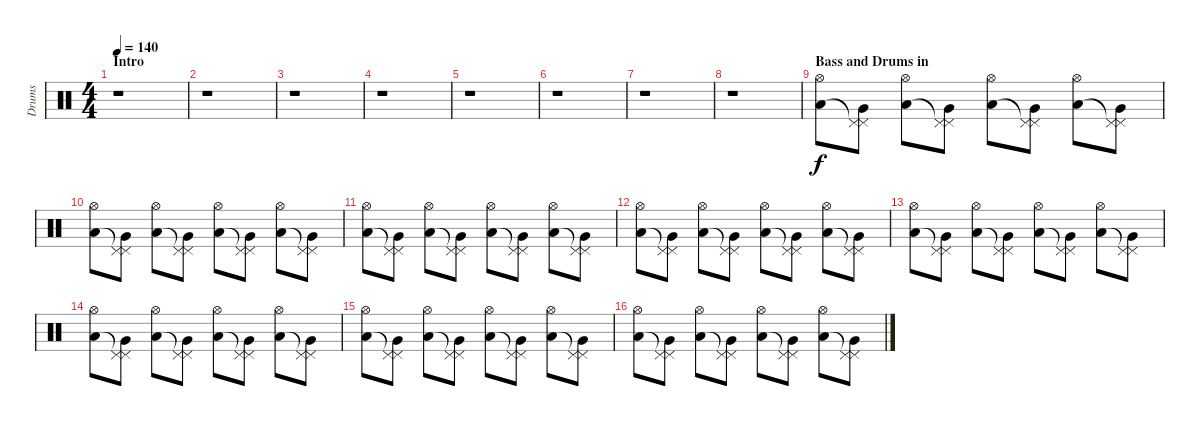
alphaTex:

\track ("Drums" "Drums") {instrument percussion}
\staff {score}
\articulation defaults
\ts (4 4)
\section ("" "Intro")
\tempo 140
\clef neutral
\ks c
r.1{dy f} |
r.1 |
r.1 |
r.1 |
r.1 |
r.1 |
r.1 |
r.1 |
\section ("" "Bass and Drums in")
("Hi-Hat (open)" "Low Floor Tom (hit)").8 ("Pedal Hi-Hat (hit)" "Pedal Hi-Hat (hit)"{t} "Very Low Tom (hit)").8 ("Hi-Hat (open)" "Low Floor Tom (hit)").8 ("Pedal Hi-Hat (hit)" "Pedal Hi-Hat (hit)"{t} "Very Low Tom (hit)").8 ("Hi-Hat (open)" "Low Floor Tom (hit)").8 ("Pedal Hi-Hat (hit)" "Pedal Hi-Hat (hit)"{t} "Very Low Tom (hit)").8 ("Hi-Hat (open)" "Low Floor Tom (hit)").8 ("Pedal Hi-Hat (hit)" "Pedal Hi-Hat (hit)"{t} "Very Low Tom (hit)").8 |
("Hi-Hat (open)" "Low Floor Tom (hit)").8 ("Pedal Hi-Hat (hit)" "Pedal Hi-Hat (hit)"{t} "Very Low Tom (hit)").8 ("Hi-Hat (open)" "Low Floor Tom (hit)").8 ("Pedal Hi-Hat (hit)" "Pedal Hi-Hat (hit)"{t} "Very Low Tom (hit)").8 ("Hi-Hat (open)" "Low Floor Tom (hit)").8 ("Pedal Hi-Hat (hit)" "Pedal Hi-Hat (hit)"{t} "Very Low Tom (hit)").8 ("Hi-Hat (open)" "Low Floor Tom (hit)").8 ("Pedal Hi-Hat (hit)" "Pedal Hi-Hat (hit)"{t} "Very Low Tom (hit)").8 |
("Hi-Hat (open)" "Low Floor Tom (hit)").8 ("Pedal Hi-Hat (hit)" "Pedal Hi-Hat (hit)"{t} "Very Low Tom (hit)").8 ("Hi-Hat (open)" "Low Floor Tom (hit)").8 ("Pedal Hi-Hat (hit)" "Pedal Hi-Hat (hit)"{t} "Very Low Tom (hit)").8 ("Hi-Hat (open)" "Low Floor Tom (hit)").8 ("Pedal Hi-Hat (hit)" "Pedal Hi-Hat (hit)"{t} "Very Low Tom (hit)").8 ("Hi-Hat (open)" "Low Floor Tom (hit)").8 ("Pedal Hi-Hat (hit)" "Pedal Hi-Hat (hit)"{t} "Very Low Tom (hit)").8 |
("Hi-Hat (open)" "Low Floor Tom (hit)").8 ("Pedal Hi-Hat (hit)" "Pedal Hi-Hat (hit)"{t} "Very Low Tom (hit)").8 ("Hi-Hat (open)" "Low Floor Tom (hit)").8 ("Pedal Hi-Hat (hit)" "Pedal Hi-Hat (hit)"{t} "Very Low Tom (hit)").8 ("Hi-Hat (open)" "Low Floor Tom (hit)").8 ("Pedal Hi-Hat (hit)" "Pedal Hi-Hat (hit)"{t} "Very Low Tom (hit)").8 ("Hi-Hat (open)" "Low Floor Tom (hit)").8 ("Pedal Hi-Hat (hit)" "Pedal Hi-Hat (hit)"{t} "Very Low Tom (hit)").8 |
("Hi-Hat (open)" "Low Floor Tom (hit)").8 ("Pedal Hi-Hat (hit)" "Pedal Hi-Hat (hit)"{t} "Very Low Tom (hit)").8 ("Hi-Hat (open)" "Low Floor Tom (hit)").8 ("Pedal Hi-Hat (hit)" "Pedal Hi-Hat (hit)"{t} "Very Low Tom (hit)").8 ("Hi-Hat (open)" "Low Floor Tom (hit)").8 ("Pedal Hi-Hat (hit)" "Pedal Hi-Hat (hit)"{t} "Very Low Tom (hit)").8 ("Hi-Hat (open)" "Low Floor Tom (hit)").8 ("Pedal Hi-Hat (hit)" "Pedal Hi-Hat (hit)"{t} "Very Low Tom (hit)").8 |
("Hi-Hat (open)" "Low Floor Tom (hit)").8 ("Pedal Hi-Hat (hit)" "Pedal Hi-Hat (hit)"{t} "Very Low Tom (hit)").8 ("Hi-Hat (open)" "Low Floor Tom (hit)").8 ("Pedal Hi-Hat (hit)" "Pedal Hi-Hat (hit)"{t} "Very Low Tom (hit)").8 ("Hi-Hat (open)" "Low Floor Tom (hit)").8 ("Pedal Hi-Hat (hit)" "Pedal Hi-Hat (hit)"{t} "Very Low Tom (hit)").8 ("Hi-Hat (open)" "Low Floor Tom (hit)").8 ("Pedal Hi-Hat (hit)" "Pedal Hi-Hat (hit)"{t} "Very Low Tom (hit)").8 |
("Hi-Hat (open)" "Low Floor Tom (hit)").8 ("Pedal Hi-Hat (hit)" "Pedal Hi-Hat (hit)"{t} "Very Low Tom (hit)").8 ("Hi-Hat (open)" "Low Floor Tom (hit)").8 ("Pedal Hi-Hat (hit)" "Pedal Hi-Hat (hit)"{t} "Very Low Tom (hit)").8 ("Hi-Hat (open)" "Low Floor Tom (hit)").8 ("Pedal Hi-Hat (hit)" "Pedal Hi-Hat (hit)"{t} "Very Low Tom (hit)").8 ("Hi-Hat (open)" "Low Floor Tom (hit)").8 ("Pedal Hi-Hat (hit)" "Pedal Hi-Hat (hit)"{t} "Very Low Tom (hit)").8 |
("Hi-Hat (open)" "Low Floor Tom (hit)").8 ("Pedal Hi-Hat (hit)" "Pedal Hi-Hat (hit)"{t} "Very Low Tom (hit)").8 ("Hi-Hat (open)" "Low Floor Tom (hit)").8 ("Pedal Hi-Hat (hit)" "Pedal Hi-Hat (hit)"{t} "Very Low Tom (hit)").8 ("Hi-Hat (open)" "Low Floor Tom (hit)").8 ("Pedal Hi-Hat (hit)" "Pedal Hi-Hat (hit)"{t} "Very Low Tom (hit)").8 ("Hi-Hat (open)" "Low Floor Tom (hit)").8 ("Pedal Hi-Hat (hit)" "Pedal Hi-Hat (hit)"{t} "Very Low Tom (hit)").8
